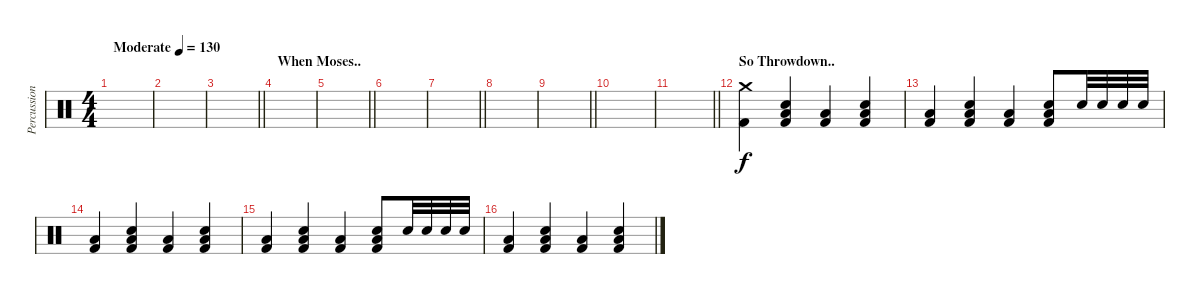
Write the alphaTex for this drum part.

\track ("Percussion" "Percussion") {instrument percussion}
\staff {score}
\articulation defaults
\ts (4 4)
\tempo (130 "Moderate")
\clef neutral
\ks c
|
|
\barLineRight lightlight
|
\section ("" "When Moses..")
|
\barLineRight lightlight
|
|
\barLineRight lightlight
|
|
\barLineRight lightlight
|
|
\barLineRight lightlight
|
\section ("" "So Throwdown..")
("Crash medium (hit)" "Kick (hit) 2").4 ("Low Floor Tom (hit)" "Electric Snare (hit)" "Kick (hit) 2").4 ("Low Floor Tom (hit)" "Kick (hit) 2").4 ("Low Floor Tom (hit)" "Electric Snare (hit)" "Kick (hit) 2").4 |
("Low Floor Tom (hit)" "Kick (hit) 2").4 ("Low Floor Tom (hit)" "Electric Snare (hit)" "Kick (hit) 2").4 ("Low Floor Tom (hit)" "Kick (hit) 2").4 ("Low Floor Tom (hit)" "Electric Snare (hit)" "Kick (hit) 2").8 "Electric Snare (hit)".32 "Electric Snare (hit)".32 "Electric Snare (hit)".32 "Electric Snare (hit)".32 |
("Low Floor Tom (hit)" "Kick (hit) 2").4 ("Low Floor Tom (hit)" "Electric Snare (hit)" "Kick (hit) 2").4 ("Low Floor Tom (hit)" "Kick (hit) 2").4 ("Low Floor Tom (hit)" "Electric Snare (hit)" "Kick (hit) 2").4 |
("Low Floor Tom (hit)" "Kick (hit) 2").4 ("Low Floor Tom (hit)" "Electric Snare (hit)" "Kick (hit) 2").4 ("Low Floor Tom (hit)" "Kick (hit) 2").4 ("Low Floor Tom (hit)" "Electric Snare (hit)" "Kick (hit) 2").8 "Electric Snare (hit)".32 "Electric Snare (hit)".32 "Electric Snare (hit)".32 "Electric Snare (hit)".32 |
("Low Floor Tom (hit)" "Kick (hit) 2").4 ("Low Floor Tom (hit)" "Electric Snare (hit)" "Kick (hit) 2").4 ("Low Floor Tom (hit)" "Kick (hit) 2").4 ("Low Floor Tom (hit)" "Electric Snare (hit)" "Kick (hit) 2").4
